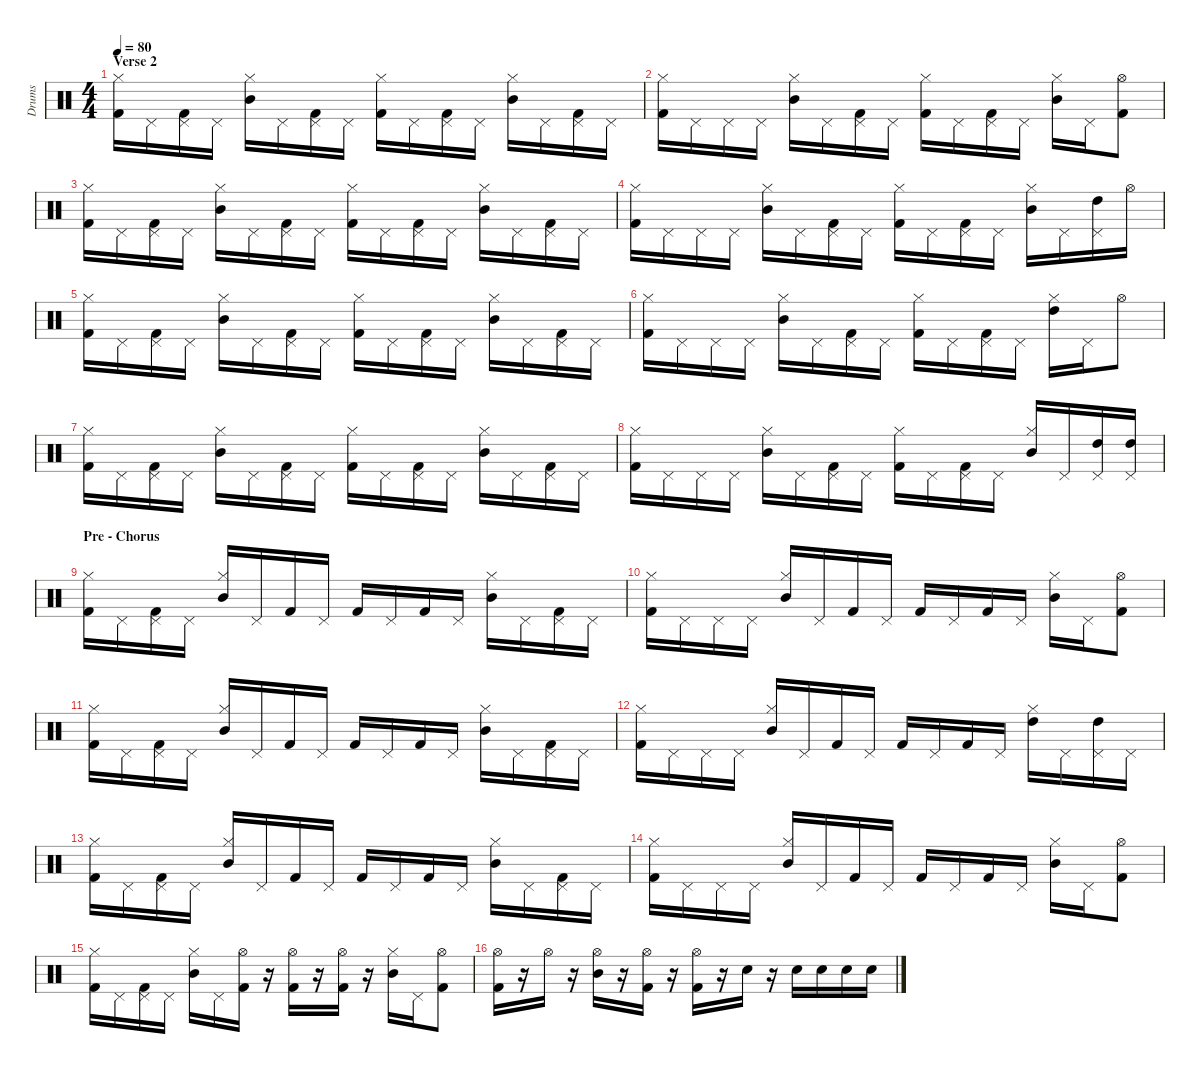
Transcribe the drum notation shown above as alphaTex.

\hideDynamics
\bracketExtendMode nobrackets
\otherSystemsTrackNameOrientation horizontal
\track ("Drumkit" "Drums") {instrument percussion}
\staff {score}
\articulation defaults
\ts (4 4)
\section ("" "Verse 2")
\tempo 80
\clef neutral
\ks c
("Hi-Hat (closed)" "Kick (hit) 2").16{dy f beam Down} "Pedal Hi-Hat (hit)".16{beam Down} ("Pedal Hi-Hat (hit)" "Kick (hit) 2").16{beam Down} "Pedal Hi-Hat (hit)".16{beam Down} ("Hi-Hat (closed)" "Mid Tom (hit)").16{beam Down} "Pedal Hi-Hat (hit)".16{beam Down} ("Pedal Hi-Hat (hit)" "Kick (hit) 2").16{beam Down} "Pedal Hi-Hat (hit)".16{beam Down} ("Hi-Hat (closed)" "Kick (hit) 2").16{beam Down} "Pedal Hi-Hat (hit)".16{beam Down} ("Pedal Hi-Hat (hit)" "Kick (hit) 2").16{beam Down} "Pedal Hi-Hat (hit)".16{beam Down} ("Hi-Hat (closed)" "Mid Tom (hit)").16{beam Down} "Pedal Hi-Hat (hit)".16{beam Down} ("Pedal Hi-Hat (hit)" "Kick (hit) 2").16{beam Down} "Pedal Hi-Hat (hit)".16{beam Down} |
("Hi-Hat (closed)" "Kick (hit) 2").16{beam Down} "Pedal Hi-Hat (hit)".16{beam Down} "Pedal Hi-Hat (hit)".16{beam Down} "Pedal Hi-Hat (hit)".16{beam Down} ("Hi-Hat (closed)" "Mid Tom (hit)").16{beam Down} "Pedal Hi-Hat (hit)".16{beam Down} ("Pedal Hi-Hat (hit)" "Kick (hit) 2").16{beam Down} "Pedal Hi-Hat (hit)".16{beam Down} ("Hi-Hat (closed)" "Kick (hit) 2").16{beam Down} "Pedal Hi-Hat (hit)".16{beam Down} ("Pedal Hi-Hat (hit)" "Kick (hit) 2").16{beam Down} "Pedal Hi-Hat (hit)".16{beam Down} ("Hi-Hat (closed)" "Mid Tom (hit)").16{beam Down} "Pedal Hi-Hat (hit)".16{beam Down} ("Hi-Hat (open)" "Kick (hit) 2").8{beam Down} |
("Hi-Hat (closed)" "Kick (hit) 2").16{beam Down} "Pedal Hi-Hat (hit)".16{beam Down} ("Pedal Hi-Hat (hit)" "Kick (hit) 2").16{beam Down} "Pedal Hi-Hat (hit)".16{beam Down} ("Hi-Hat (closed)" "Mid Tom (hit)").16{beam Down} "Pedal Hi-Hat (hit)".16{beam Down} ("Pedal Hi-Hat (hit)" "Kick (hit) 2").16{beam Down} "Pedal Hi-Hat (hit)".16{beam Down} ("Hi-Hat (closed)" "Kick (hit) 2").16{beam Down} "Pedal Hi-Hat (hit)".16{beam Down} ("Pedal Hi-Hat (hit)" "Kick (hit) 2").16{beam Down} "Pedal Hi-Hat (hit)".16{beam Down} ("Hi-Hat (closed)" "Mid Tom (hit)").16{beam Down} "Pedal Hi-Hat (hit)".16{beam Down} ("Pedal Hi-Hat (hit)" "Kick (hit) 2").16{beam Down} "Pedal Hi-Hat (hit)".16{beam Down} |
("Hi-Hat (closed)" "Kick (hit) 2").16{beam Down} "Pedal Hi-Hat (hit)".16{beam Down} "Pedal Hi-Hat (hit)".16{beam Down} "Pedal Hi-Hat (hit)".16{beam Down} ("Hi-Hat (closed)" "Mid Tom (hit)").16{beam Down} "Pedal Hi-Hat (hit)".16{beam Down} ("Pedal Hi-Hat (hit)" "Kick (hit) 2").16{beam Down} "Pedal Hi-Hat (hit)".16{beam Down} ("Hi-Hat (closed)" "Kick (hit) 2").16{beam Down} "Pedal Hi-Hat (hit)".16{beam Down} ("Pedal Hi-Hat (hit)" "Kick (hit) 2").16{beam Down} "Pedal Hi-Hat (hit)".16{beam Down} ("Hi-Hat (closed)" "Mid Tom (hit)").16{beam Down} "Pedal Hi-Hat (hit)".16{beam Down} ("Pedal Hi-Hat (hit)" "High Tom (hit)").16{beam Down} "Hi-Hat (open)".16{beam Down} |
("Hi-Hat (closed)" "Kick (hit) 2").16{beam Down} "Pedal Hi-Hat (hit)".16{beam Down} ("Pedal Hi-Hat (hit)" "Kick (hit) 2").16{beam Down} "Pedal Hi-Hat (hit)".16{beam Down} ("Hi-Hat (closed)" "Mid Tom (hit)").16{beam Down} "Pedal Hi-Hat (hit)".16{beam Down} ("Pedal Hi-Hat (hit)" "Kick (hit) 2").16{beam Down} "Pedal Hi-Hat (hit)".16{beam Down} ("Hi-Hat (closed)" "Kick (hit) 2").16{beam Down} "Pedal Hi-Hat (hit)".16{beam Down} ("Pedal Hi-Hat (hit)" "Kick (hit) 2").16{beam Down} "Pedal Hi-Hat (hit)".16{beam Down} ("Hi-Hat (closed)" "Mid Tom (hit)").16{beam Down} "Pedal Hi-Hat (hit)".16{beam Down} ("Pedal Hi-Hat (hit)" "Kick (hit) 2").16{beam Down} "Pedal Hi-Hat (hit)".16{beam Down} |
("Hi-Hat (closed)" "Kick (hit) 2").16{beam Down} "Pedal Hi-Hat (hit)".16{beam Down} "Pedal Hi-Hat (hit)".16{beam Down} "Pedal Hi-Hat (hit)".16{beam Down} ("Hi-Hat (closed)" "Mid Tom (hit)").16{beam Down} "Pedal Hi-Hat (hit)".16{beam Down} ("Pedal Hi-Hat (hit)" "Kick (hit) 2").16{beam Down} "Pedal Hi-Hat (hit)".16{beam Down} ("Hi-Hat (closed)" "Kick (hit) 2").16{beam Down} "Pedal Hi-Hat (hit)".16{beam Down} ("Pedal Hi-Hat (hit)" "Kick (hit) 2").16{beam Down} "Pedal Hi-Hat (hit)".16{beam Down} ("Hi-Hat (closed)" "High Tom (hit)").16{beam Down} "Pedal Hi-Hat (hit)".16{beam Down} "Hi-Hat (open)".8{beam Down} |
("Hi-Hat (closed)" "Kick (hit) 2").16{beam Down} "Pedal Hi-Hat (hit)".16{beam Down} ("Pedal Hi-Hat (hit)" "Kick (hit) 2").16{beam Down} "Pedal Hi-Hat (hit)".16{beam Down} ("Hi-Hat (closed)" "Mid Tom (hit)").16{beam Down} "Pedal Hi-Hat (hit)".16{beam Down} ("Pedal Hi-Hat (hit)" "Kick (hit) 2").16{beam Down} "Pedal Hi-Hat (hit)".16{beam Down} ("Hi-Hat (closed)" "Kick (hit) 2").16{beam Down} "Pedal Hi-Hat (hit)".16{beam Down} ("Pedal Hi-Hat (hit)" "Kick (hit) 2").16{beam Down} "Pedal Hi-Hat (hit)".16{beam Down} ("Hi-Hat (closed)" "Mid Tom (hit)").16{beam Down} "Pedal Hi-Hat (hit)".16{beam Down} ("Pedal Hi-Hat (hit)" "Kick (hit) 2").16{beam Down} "Pedal Hi-Hat (hit)".16{beam Down} |
("Hi-Hat (closed)" "Kick (hit) 2").16{beam Down} "Pedal Hi-Hat (hit)".16{beam Down} "Pedal Hi-Hat (hit)".16{beam Down} "Pedal Hi-Hat (hit)".16{beam Down} ("Hi-Hat (closed)" "Mid Tom (hit)").16{beam Down} "Pedal Hi-Hat (hit)".16{beam Down} ("Pedal Hi-Hat (hit)" "Kick (hit) 2").16{beam Down} "Pedal Hi-Hat (hit)".16{beam Down} ("Hi-Hat (closed)" "Kick (hit) 2").16{beam Down} "Pedal Hi-Hat (hit)".16{beam Down} ("Pedal Hi-Hat (hit)" "Kick (hit) 2").16{beam Down} "Pedal Hi-Hat (hit)".16{beam Down} ("Hi-Hat (closed)" "Mid Tom (hit)").16{beam Up} "Pedal Hi-Hat (hit)".16{beam Up} ("Pedal Hi-Hat (hit)" "High Tom (hit)").16{beam Up} ("Pedal Hi-Hat (hit)" "High Tom (hit)").16{beam Up} |
\section ("" "Pre - Chorus")
("Hi-Hat (closed)" "Kick (hit) 2").16{beam Down} "Pedal Hi-Hat (hit)".16{beam Down} ("Pedal Hi-Hat (hit)" "Kick (hit) 2").16{beam Down} "Pedal Hi-Hat (hit)".16{beam Down} ("Hi-Hat (closed)" "Mid Tom (hit)").16{beam Up} "Pedal Hi-Hat (hit)".16{beam Up} "Kick (hit) 2".16{beam Up} "Pedal Hi-Hat (hit)".16{beam Up} "Kick (hit) 2".16{beam Up} "Pedal Hi-Hat (hit)".16{beam Up} "Kick (hit) 2".16{beam Up} "Pedal Hi-Hat (hit)".16{beam Up} ("Hi-Hat (closed)" "Mid Tom (hit)").16{beam Down} "Pedal Hi-Hat (hit)".16{beam Down} ("Pedal Hi-Hat (hit)" "Kick (hit) 2").16{beam Down} "Pedal Hi-Hat (hit)".16{beam Down} |
("Hi-Hat (closed)" "Kick (hit) 2").16{beam Down} "Pedal Hi-Hat (hit)".16{beam Down} "Pedal Hi-Hat (hit)".16{beam Down} "Pedal Hi-Hat (hit)".16{beam Down} ("Hi-Hat (closed)" "Mid Tom (hit)").16{beam Up} "Pedal Hi-Hat (hit)".16{beam Up} "Kick (hit) 2".16{beam Up} "Pedal Hi-Hat (hit)".16{beam Up} "Kick (hit) 2".16{beam Up} "Pedal Hi-Hat (hit)".16{beam Up} "Kick (hit) 2".16{beam Up} "Pedal Hi-Hat (hit)".16{beam Up} ("Hi-Hat (closed)" "Mid Tom (hit)").16{beam Down} "Pedal Hi-Hat (hit)".16{beam Down} ("Hi-Hat (open)" "Kick (hit) 2").8{beam Down} |
("Hi-Hat (closed)" "Kick (hit) 2").16{beam Down} "Pedal Hi-Hat (hit)".16{beam Down} ("Pedal Hi-Hat (hit)" "Kick (hit) 2").16{beam Down} "Pedal Hi-Hat (hit)".16{beam Down} ("Hi-Hat (closed)" "Mid Tom (hit)").16{beam Up} "Pedal Hi-Hat (hit)".16{beam Up} "Kick (hit) 2".16{beam Up} "Pedal Hi-Hat (hit)".16{beam Up} "Kick (hit) 2".16{beam Up} "Pedal Hi-Hat (hit)".16{beam Up} "Kick (hit) 2".16{beam Up} "Pedal Hi-Hat (hit)".16{beam Up} ("Hi-Hat (closed)" "Mid Tom (hit)").16{beam Down} "Pedal Hi-Hat (hit)".16{beam Down} ("Pedal Hi-Hat (hit)" "Kick (hit) 2").16{beam Down} "Pedal Hi-Hat (hit)".16{beam Down} |
("Hi-Hat (closed)" "Kick (hit) 2").16{beam Down} "Pedal Hi-Hat (hit)".16{beam Down} "Pedal Hi-Hat (hit)".16{beam Down} "Pedal Hi-Hat (hit)".16{beam Down} ("Hi-Hat (closed)" "Mid Tom (hit)").16{beam Up} "Pedal Hi-Hat (hit)".16{beam Up} "Kick (hit) 2".16{beam Up} "Pedal Hi-Hat (hit)".16{beam Up} "Kick (hit) 2".16{beam Up} "Pedal Hi-Hat (hit)".16{beam Up} "Kick (hit) 2".16{beam Up} "Pedal Hi-Hat (hit)".16{beam Up} ("Hi-Hat (closed)" "High Tom (hit)").16{beam Down} "Pedal Hi-Hat (hit)".16{beam Down} ("Pedal Hi-Hat (hit)" "High Tom (hit)").16{beam Down} "Pedal Hi-Hat (hit)".16{beam Down} |
("Hi-Hat (closed)" "Kick (hit) 2").16{beam Down} "Pedal Hi-Hat (hit)".16{beam Down} ("Pedal Hi-Hat (hit)" "Kick (hit) 2").16{beam Down} "Pedal Hi-Hat (hit)".16{beam Down} ("Hi-Hat (closed)" "Mid Tom (hit)").16{beam Up} "Pedal Hi-Hat (hit)".16{beam Up} "Kick (hit) 2".16{beam Up} "Pedal Hi-Hat (hit)".16{beam Up} "Kick (hit) 2".16{beam Up} "Pedal Hi-Hat (hit)".16{beam Up} "Kick (hit) 2".16{beam Up} "Pedal Hi-Hat (hit)".16{beam Up} ("Hi-Hat (closed)" "Mid Tom (hit)").16{beam Down} "Pedal Hi-Hat (hit)".16{beam Down} ("Pedal Hi-Hat (hit)" "Kick (hit) 2").16{beam Down} "Pedal Hi-Hat (hit)".16{beam Down} |
("Hi-Hat (closed)" "Kick (hit) 2").16{beam Down} "Pedal Hi-Hat (hit)".16{beam Down} "Pedal Hi-Hat (hit)".16{beam Down} "Pedal Hi-Hat (hit)".16{beam Down} ("Hi-Hat (closed)" "Mid Tom (hit)").16{beam Up} "Pedal Hi-Hat (hit)".16{beam Up} "Kick (hit) 2".16{beam Up} "Pedal Hi-Hat (hit)".16{beam Up} "Kick (hit) 2".16{beam Up} "Pedal Hi-Hat (hit)".16{beam Up} "Kick (hit) 2".16{beam Up} "Pedal Hi-Hat (hit)".16{beam Up} ("Hi-Hat (closed)" "Mid Tom (hit)").16{beam Down} "Pedal Hi-Hat (hit)".16{beam Down} ("Hi-Hat (open)" "Kick (hit) 2").8{beam Down} |
("Hi-Hat (closed)" "Kick (hit) 2").16{beam Down} "Pedal Hi-Hat (hit)".16{beam Down} ("Pedal Hi-Hat (hit)" "Kick (hit) 2").16{beam Down} "Pedal Hi-Hat (hit)".16{beam Down} ("Hi-Hat (closed)" "Mid Tom (hit)").16{beam Down} "Pedal Hi-Hat (hit)".16{beam Down} ("Hi-Hat (open)" "Kick (hit) 2").16{beam Down} r.16{beam Down} ("Hi-Hat (open)" "Kick (hit) 2").16{beam Down} r.16{beam Down} ("Hi-Hat (open)" "Kick (hit) 2").16{beam Down} r.16{beam Down} ("Hi-Hat (closed)" "Mid Tom (hit)").16{beam Down} "Pedal Hi-Hat (hit)".16{beam Down} ("Hi-Hat (open)" "Kick (hit) 2").8{beam Down} |
("Hi-Hat (open)" "Kick (hit) 2").16{beam Down} r.16{beam Down} "Hi-Hat (open)".16{beam Down} r.16{beam Down} ("Hi-Hat (open)" "Mid Tom (hit)").16{beam Down} r.16{beam Down} ("Hi-Hat (open)" "Kick (hit) 2").16{beam Down} r.16{beam Down} ("Hi-Hat (open)" "Kick (hit) 2").16{beam Down} r.16{beam Down} "Snare (hit) 2".16{beam Down} r.16{beam Down} "Snare (hit) 2".16{beam Down} "Snare (hit) 2".16{beam Down} "Snare (hit) 2".16{beam Down} "Snare (hit) 2".16{beam Down}
